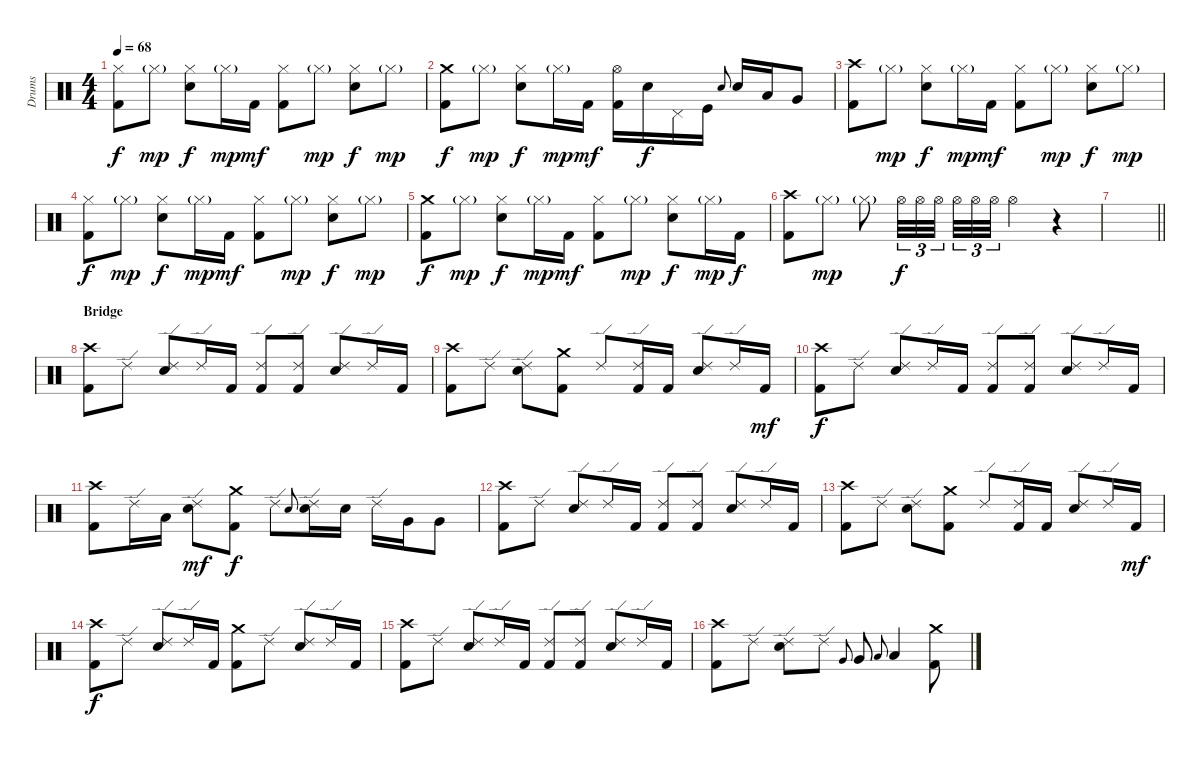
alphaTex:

\track ("Drums" "Drums") {instrument percussion}
\staff {score}
\articulation defaults
\ts (4 4)
\tempo 68
\clef neutral
\ks aminor
("Hi-Hat (closed)" "Kick (hit) 2").8{dy f} "Hi-Hat (closed)"{g}.8{dy mp} ("Hi-Hat (closed)" "Snare (hit) 2").8{dy f} "Hi-Hat (closed)"{g}.16{dy mp} "Kick (hit) 2".16{dy mf} ("Hi-Hat (closed)" "Kick (hit) 2").8 "Hi-Hat (closed)"{g}.8{dy mp} ("Hi-Hat (closed)" "Snare (hit) 2").8{dy f} "Hi-Hat (closed)"{g}.8{dy mp} |
("Crash medium (hit)" "Kick (hit) 2").8{dy f} "Hi-Hat (closed)"{g}.8{dy mp} ("Hi-Hat (closed)" "Snare (hit) 2").8{dy f} "Hi-Hat (closed)"{g}.16{dy mp} "Kick (hit) 2".16{dy mf} ("Hi-Hat (open)" "Kick (hit) 2").16 "Snare (hit) 2".16{dy f} "Pedal Hi-Hat (hit)".16 "Kick (hit)".16 "Snare (hit) 2".8{gr onbeat} "Snare (hit) 2".16 "Low Tom (hit)".16 "Very Low Tom (hit)".8 |
("Crash high (hit)" "Kick (hit) 2").8 "Hi-Hat (closed)"{g}.8{dy mp} ("Hi-Hat (closed)" "Snare (hit) 2").8{dy f} "Hi-Hat (closed)"{g}.16{dy mp} "Kick (hit) 2".16{dy mf} ("Hi-Hat (closed)" "Kick (hit) 2").8 "Hi-Hat (closed)"{g}.8{dy mp} ("Hi-Hat (closed)" "Snare (hit) 2").8{dy f} "Hi-Hat (closed)"{g}.8{dy mp} |
("Hi-Hat (closed)" "Kick (hit) 2").8{dy f} "Hi-Hat (closed)"{g}.8{dy mp} ("Hi-Hat (closed)" "Snare (hit) 2").8{dy f} "Hi-Hat (closed)"{g}.16{dy mp} "Kick (hit) 2".16{dy mf} ("Hi-Hat (closed)" "Kick (hit) 2").8 "Hi-Hat (closed)"{g}.8{dy mp} ("Hi-Hat (closed)" "Snare (hit) 2").8{dy f} "Hi-Hat (closed)"{g}.8{dy mp} |
("Crash medium (hit)" "Kick (hit) 2").8{dy f} "Hi-Hat (closed)"{g}.8{dy mp} ("Hi-Hat (closed)" "Snare (hit) 2").8{dy f} "Hi-Hat (closed)"{g}.16{dy mp} "Kick (hit) 2".16{dy mf} ("Hi-Hat (closed)" "Kick (hit) 2").8 "Hi-Hat (closed)"{g}.8{dy mp} ("Hi-Hat (closed)" "Snare (hit) 2").8{dy f} "Hi-Hat (closed)"{g}.16{dy mp} "Kick (hit) 2".16{dy f} |
("Crash high (hit)" "Kick (hit) 2").8 "Hi-Hat (closed)"{g}.8{dy mp} "Hi-Hat (closed)"{g}.8{volume 4} "Hi-Hat (open)".32{tu (3 2) dy f volume 9} "Hi-Hat (open)".32{tu (3 2)} "Hi-Hat (open)".32{tu (3 2) beam splitsecondary} "Hi-Hat (open)".32{tu (3 2)} "Hi-Hat (open)".32{tu (3 2)} "Hi-Hat (open)".32{tu (3 2)} "Hi-Hat (open)".4 r.4{volume 13} |
\barLineRight lightlight
|
\section ("" "Bridge")
("Crash high (hit)" "Kick (hit) 2").8 "Ride (edge) 2".8 ("Ride (edge) 2" "Snare (hit) 2").8 "Ride (edge) 2".16 "Kick (hit) 2".16 ("Ride (edge) 2" "Kick (hit) 2").8 ("Ride (edge) 2" "Kick (hit) 2").8 ("Ride (edge) 2" "Snare (hit) 2").8 "Ride (edge) 2".16 "Kick (hit) 2".16 |
("Crash high (hit)" "Kick (hit) 2").8 "Ride (edge) 2".8 ("Ride (edge) 2" "Snare (hit) 2").8 ("Crash medium (hit)" "Kick (hit) 2").8 "Ride (edge) 2".8 ("Ride (edge) 2" "Kick (hit) 2").16 "Kick (hit) 2".16 ("Ride (edge) 2" "Snare (hit) 2").8 "Ride (edge) 2".16 "Kick (hit) 2".16{dy mf} |
("Crash high (hit)" "Kick (hit) 2").8{dy f} "Ride (edge) 2".8 ("Ride (edge) 2" "Snare (hit) 2").8 "Ride (edge) 2".16 "Kick (hit) 2".16 ("Ride (edge) 2" "Kick (hit) 2").8 ("Ride (edge) 2" "Kick (hit) 2").8 ("Ride (edge) 2" "Snare (hit) 2").8 "Ride (edge) 2".16 "Kick (hit) 2".16 |
("Crash high (hit)" "Kick (hit) 2").8 "Ride (edge) 2".16 "Low Tom (hit)".16 ("Ride (edge) 2" "Snare (hit) 2").8{dy mf} ("Crash medium (hit)" "Kick (hit) 2").8{dy f} "Ride (edge) 2".8 "Snare (hit) 2".8{gr onbeat} ("Ride (edge) 2" "Snare (hit) 2").16 "Snare (hit) 2".16 "Ride (edge) 2".16 "Very Low Tom (hit)".16 "Very Low Tom (hit)".8 |
("Crash high (hit)" "Kick (hit) 2").8 "Ride (edge) 2".8 ("Ride (edge) 2" "Snare (hit) 2").8 "Ride (edge) 2".16 "Kick (hit) 2".16 ("Ride (edge) 2" "Kick (hit) 2").8 ("Ride (edge) 2" "Kick (hit) 2").8 ("Ride (edge) 2" "Snare (hit) 2").8 "Ride (edge) 2".16 "Kick (hit) 2".16 |
("Crash high (hit)" "Kick (hit) 2").8 "Ride (edge) 2".8 ("Ride (edge) 2" "Snare (hit) 2").8 ("Crash medium (hit)" "Kick (hit) 2").8 "Ride (edge) 2".8 ("Ride (edge) 2" "Kick (hit) 2").16 "Kick (hit) 2".16 ("Ride (edge) 2" "Snare (hit) 2").8 "Ride (edge) 2".16 "Kick (hit) 2".16{dy mf} |
("Crash high (hit)" "Kick (hit) 2").8{dy f} "Ride (edge) 2".8 ("Ride (edge) 2" "Snare (hit) 2").8 "Ride (edge) 2".16 "Kick (hit) 2".16 ("Crash medium (hit)" "Kick (hit) 2").8 "Ride (edge) 2".8 ("Ride (edge) 2" "Snare (hit) 2").8 "Ride (edge) 2".16 "Kick (hit) 2".16 |
("Crash high (hit)" "Kick (hit) 2").8 "Ride (edge) 2".8 ("Ride (edge) 2" "Snare (hit) 2").8 "Ride (edge) 2".16 "Kick (hit) 2".16 ("Ride (edge) 2" "Kick (hit) 2").8 ("Ride (edge) 2" "Kick (hit) 2").8 ("Ride (edge) 2" "Snare (hit) 2").8 "Ride (edge) 2".16 "Kick (hit) 2".16 |
("Crash high (hit)" "Kick (hit) 2").8 "Ride (edge) 2".8 ("Ride (edge) 2" "Snare (hit) 2").8 "Ride (edge) 2".8 "Very Low Tom (hit)".8{gr onbeat} "Very Low Tom (hit)".8 "Low Floor Tom (hit)".8{gr onbeat} "Low Floor Tom (hit)".4 ("Crash medium (hit)" "Kick (hit) 2").8
